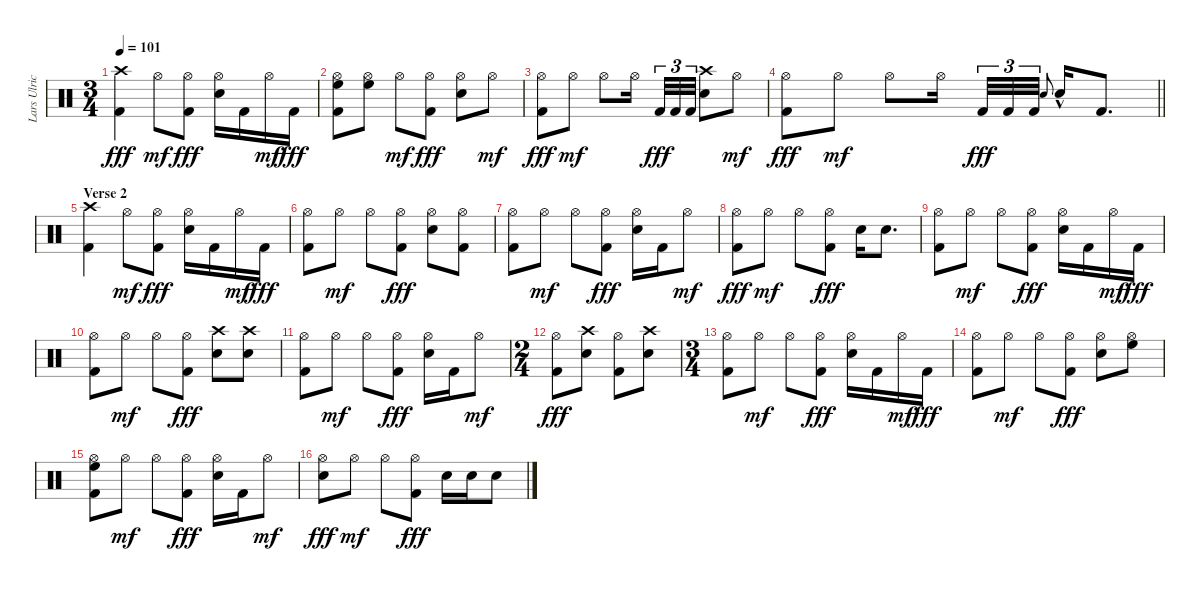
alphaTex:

\track ("Lars Ulrich" "Lars Ulric") {instrument percussion}
\staff {score}
\articulation defaults
\ts (3 4)
\tempo 101
\clef neutral
\ks c
("Crash high (hit)" "Kick (hit) 2").4{dy fff} "Hi-Hat (open)".8{dy mf} ("Hi-Hat (open)" "Kick (hit) 2").8{dy fff} ("Hi-Hat (open)" "Electric Snare (hit)").16 "Kick (hit) 2".16 "Hi-Hat (open)".16{dy mf} "Kick (hit) 2".16{dy fff} |
("Hi-Hat (open)" "High Floor Tom (hit)" "Kick (hit) 2").8 ("Hi-Hat (open)" "High Floor Tom (hit)").8 "Hi-Hat (open)".8{dy mf} ("Hi-Hat (open)" "Kick (hit) 2").8{dy fff} ("Hi-Hat (open)" "Electric Snare (hit)").8 "Hi-Hat (open)".8{dy mf} |
("Hi-Hat (open)" "Kick (hit) 2").8{dy fff} "Hi-Hat (open)".8{dy mf} "Hi-Hat (open)".8 "Hi-Hat (open)".16{beam splitsecondary} "Kick (hit) 2".32{tu (3 2) dy fff} "Kick (hit) 2".32{tu (3 2)} "Kick (hit) 2".32{tu (3 2)} ("Crash high (hit)" "Electric Snare (hit)").8 "Hi-Hat (open)".8{dy mf} |
\barLineRight lightlight
("Hi-Hat (open)" "Kick (hit) 2").8{dy fff} "Hi-Hat (open)".8{dy mf} "Hi-Hat (open)".8 "Hi-Hat (open)".16{beam splitsecondary} "Kick (hit) 2".32{tu (3 2) dy fff} "Kick (hit) 2".32{tu (3 2)} "Kick (hit) 2".32{tu (3 2)} "Electric Snare (hit)".8{gr onbeat} "Electric Snare (hit)"{hac}.16 "Kick (hit) 2".8{d} |
\section ("" "Verse 2")
("Crash high (hit)" "Kick (hit) 2").4 "Hi-Hat (open)".8{dy mf} ("Hi-Hat (open)" "Kick (hit) 2").8{dy fff} ("Hi-Hat (open)" "Electric Snare (hit)").16 "Kick (hit) 2".16 "Hi-Hat (open)".16{dy mf} "Kick (hit) 2".16{dy fff} |
("Hi-Hat (open)" "Kick (hit) 2").8 "Hi-Hat (open)".8{dy mf} "Hi-Hat (open)".8 ("Hi-Hat (open)" "Kick (hit) 2").8{dy fff} ("Hi-Hat (open)" "Electric Snare (hit)").8 ("Hi-Hat (open)" "Kick (hit) 2").8 |
("Hi-Hat (open)" "Kick (hit) 2").8 "Hi-Hat (open)".8{dy mf} "Hi-Hat (open)".8 ("Hi-Hat (open)" "Kick (hit) 2").8{dy fff} ("Hi-Hat (open)" "Electric Snare (hit)").16 "Kick (hit) 2".16 "Hi-Hat (open)".8{dy mf} |
("Hi-Hat (open)" "Kick (hit) 2").8{dy fff} "Hi-Hat (open)".8{dy mf} "Hi-Hat (open)".8 ("Hi-Hat (open)" "Kick (hit) 2").8{dy fff} "Electric Snare (hit)".16 "Electric Snare (hit)".8{d} |
("Hi-Hat (open)" "Kick (hit) 2").8 "Hi-Hat (open)".8{dy mf} "Hi-Hat (open)".8 ("Hi-Hat (open)" "Kick (hit) 2").8{dy fff} ("Hi-Hat (open)" "Electric Snare (hit)").16 "Kick (hit) 2".16 "Hi-Hat (open)".16{dy mf} "Kick (hit) 2".16{dy fff} |
("Hi-Hat (open)" "Kick (hit) 2").8 "Hi-Hat (open)".8{dy mf} "Hi-Hat (open)".8 ("Hi-Hat (open)" "Kick (hit) 2").8{dy fff} ("Crash high (hit)" "Electric Snare (hit)").8 ("Crash high (hit)" "Electric Snare (hit)").8 |
("Hi-Hat (open)" "Kick (hit) 2").8 "Hi-Hat (open)".8{dy mf} "Hi-Hat (open)".8 ("Hi-Hat (open)" "Kick (hit) 2").8{dy fff} ("Hi-Hat (open)" "Electric Snare (hit)").16 "Kick (hit) 2".16 "Hi-Hat (open)".8{dy mf} |
\ts (2 4)
("Hi-Hat (open)" "Kick (hit) 2").8{dy fff} ("Crash high (hit)" "Electric Snare (hit)").8 ("Hi-Hat (open)" "Kick (hit) 2").8 ("Crash high (hit)" "Electric Snare (hit)").8 |
\ts (3 4)
("Hi-Hat (open)" "Kick (hit) 2").8 "Hi-Hat (open)".8{dy mf} "Hi-Hat (open)".8 ("Hi-Hat (open)" "Kick (hit) 2").8{dy fff} ("Hi-Hat (open)" "Electric Snare (hit)").16 "Kick (hit) 2".16 "Hi-Hat (open)".16{dy mf} "Kick (hit) 2".16{dy fff} |
("Hi-Hat (open)" "Kick (hit) 2").8 "Hi-Hat (open)".8{dy mf} "Hi-Hat (open)".8 ("Hi-Hat (open)" "Kick (hit) 2").8{dy fff} ("Hi-Hat (open)" "Electric Snare (hit)").8 ("Hi-Hat (open)" "High Floor Tom (hit)").8 |
("Hi-Hat (open)" "High Floor Tom (hit)" "Kick (hit) 2").8 "Hi-Hat (open)".8{dy mf} "Hi-Hat (open)".8 ("Hi-Hat (open)" "Kick (hit) 2").8{dy fff} ("Hi-Hat (open)" "Electric Snare (hit)").16 "Kick (hit) 2".16 "Hi-Hat (open)".8{dy mf} |
("Hi-Hat (open)" "Electric Snare (hit)").8{dy fff} "Hi-Hat (open)".8{dy mf} "Hi-Hat (open)".8 ("Hi-Hat (open)" "Kick (hit) 2").8{dy fff} "Electric Snare (hit)".16 "Electric Snare (hit)".16 "Electric Snare (hit)".8
